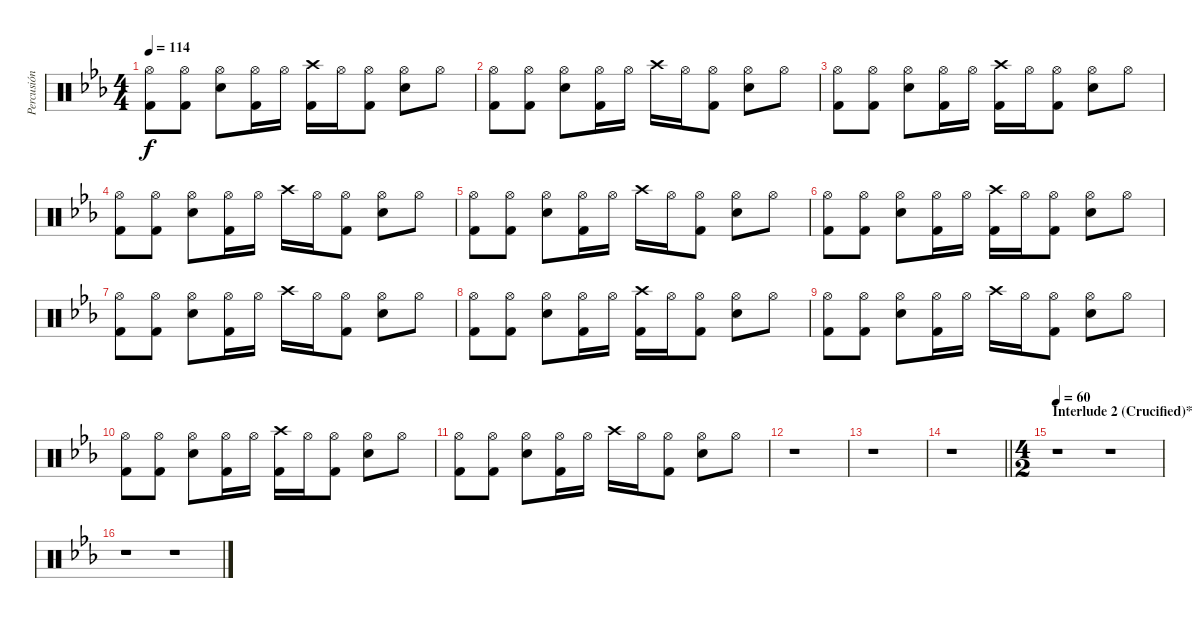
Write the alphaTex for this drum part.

\track ("Percusión" "Percusión") {instrument percussion}
\staff {score}
\articulation defaults
\ts (4 4)
\tempo 114
\clef neutral
\ks eb
("Hi-Hat (open)" "Kick (hit) 2").8{dy f} ("Hi-Hat (open)" "Kick (hit) 2").8 ("Hi-Hat (open)" "Snare (hit) 2").8 ("Hi-Hat (open)" "Kick (hit) 2").16 "Hi-Hat (open)".16 ("Crash high (hit)" "Kick (hit) 2").16 "Hi-Hat (open)".16 ("Hi-Hat (open)" "Kick (hit) 2").8 ("Hi-Hat (open)" "Snare (hit) 2").8 "Hi-Hat (open)".8 |
("Hi-Hat (open)" "Kick (hit) 2").8 ("Hi-Hat (open)" "Kick (hit) 2").8 ("Hi-Hat (open)" "Snare (hit) 2").8 ("Hi-Hat (open)" "Kick (hit) 2").16 "Hi-Hat (open)".16 "Crash high (hit)".16 "Hi-Hat (open)".16 ("Hi-Hat (open)" "Kick (hit) 2").8 ("Hi-Hat (open)" "Snare (hit) 2").8 "Hi-Hat (open)".8 |
("Hi-Hat (open)" "Kick (hit) 2").8 ("Hi-Hat (open)" "Kick (hit) 2").8 ("Hi-Hat (open)" "Snare (hit) 2").8 ("Hi-Hat (open)" "Kick (hit) 2").16 "Hi-Hat (open)".16 ("Crash high (hit)" "Kick (hit) 2").16 "Hi-Hat (open)".16 ("Hi-Hat (open)" "Kick (hit) 2").8 ("Hi-Hat (open)" "Snare (hit) 2").8 "Hi-Hat (open)".8 |
("Hi-Hat (open)" "Kick (hit) 2").8 ("Hi-Hat (open)" "Kick (hit) 2").8 ("Hi-Hat (open)" "Snare (hit) 2").8 ("Hi-Hat (open)" "Kick (hit) 2").16 "Hi-Hat (open)".16 "Crash high (hit)".16 "Hi-Hat (open)".16 ("Hi-Hat (open)" "Kick (hit) 2").8 ("Hi-Hat (open)" "Snare (hit) 2").8 "Hi-Hat (open)".8 |
("Hi-Hat (open)" "Kick (hit) 2").8 ("Hi-Hat (open)" "Kick (hit) 2").8 ("Hi-Hat (open)" "Snare (hit) 2").8 ("Hi-Hat (open)" "Kick (hit) 2").16 "Hi-Hat (open)".16 "Crash high (hit)".16 "Hi-Hat (open)".16 ("Hi-Hat (open)" "Kick (hit) 2").8 ("Hi-Hat (open)" "Snare (hit) 2").8 "Hi-Hat (open)".8 |
("Hi-Hat (open)" "Kick (hit) 2").8 ("Hi-Hat (open)" "Kick (hit) 2").8 ("Hi-Hat (open)" "Snare (hit) 2").8 ("Hi-Hat (open)" "Kick (hit) 2").16 "Hi-Hat (open)".16 ("Crash high (hit)" "Kick (hit) 2").16 "Hi-Hat (open)".16 ("Hi-Hat (open)" "Kick (hit) 2").8 ("Hi-Hat (open)" "Snare (hit) 2").8 "Hi-Hat (open)".8 |
("Hi-Hat (open)" "Kick (hit) 2").8 ("Hi-Hat (open)" "Kick (hit) 2").8 ("Hi-Hat (open)" "Snare (hit) 2").8 ("Hi-Hat (open)" "Kick (hit) 2").16 "Hi-Hat (open)".16 "Crash high (hit)".16 "Hi-Hat (open)".16 ("Hi-Hat (open)" "Kick (hit) 2").8 ("Hi-Hat (open)" "Snare (hit) 2").8 "Hi-Hat (open)".8 |
("Hi-Hat (open)" "Kick (hit) 2").8 ("Hi-Hat (open)" "Kick (hit) 2").8 ("Hi-Hat (open)" "Snare (hit) 2").8 ("Hi-Hat (open)" "Kick (hit) 2").16 "Hi-Hat (open)".16 ("Crash high (hit)" "Kick (hit) 2").16 "Hi-Hat (open)".16 ("Hi-Hat (open)" "Kick (hit) 2").8 ("Hi-Hat (open)" "Snare (hit) 2").8 "Hi-Hat (open)".8 |
("Hi-Hat (open)" "Kick (hit) 2").8 ("Hi-Hat (open)" "Kick (hit) 2").8 ("Hi-Hat (open)" "Snare (hit) 2").8 ("Hi-Hat (open)" "Kick (hit) 2").16 "Hi-Hat (open)".16 "Crash high (hit)".16 "Hi-Hat (open)".16 ("Hi-Hat (open)" "Kick (hit) 2").8 ("Hi-Hat (open)" "Snare (hit) 2").8 "Hi-Hat (open)".8 |
("Hi-Hat (open)" "Kick (hit) 2").8 ("Hi-Hat (open)" "Kick (hit) 2").8 ("Hi-Hat (open)" "Snare (hit) 2").8 ("Hi-Hat (open)" "Kick (hit) 2").16 "Hi-Hat (open)".16 ("Crash high (hit)" "Kick (hit) 2").16 "Hi-Hat (open)".16 ("Hi-Hat (open)" "Kick (hit) 2").8 ("Hi-Hat (open)" "Snare (hit) 2").8 "Hi-Hat (open)".8 |
("Hi-Hat (open)" "Kick (hit) 2").8 ("Hi-Hat (open)" "Kick (hit) 2").8 ("Hi-Hat (open)" "Snare (hit) 2").8 ("Hi-Hat (open)" "Kick (hit) 2").16 "Hi-Hat (open)".16 "Crash high (hit)".16 "Hi-Hat (open)".16 ("Hi-Hat (open)" "Kick (hit) 2").8 ("Hi-Hat (open)" "Snare (hit) 2").8 "Hi-Hat (open)".8 |
r.1 |
r.1 |
\barLineRight lightlight
r.1 |
\ts (4 2)
\section ("" "Interlude 2 (Crucified)*")
\tempo 60
r.1 r.1 |
r.1 r.1
